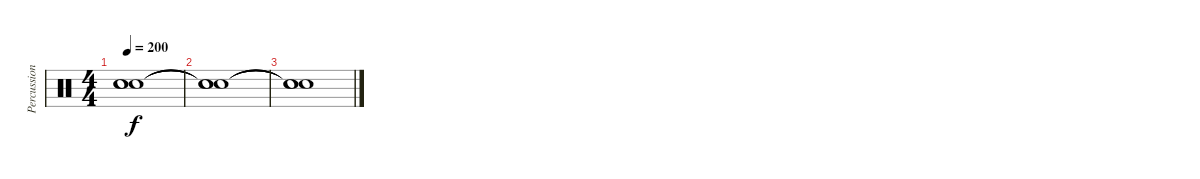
\track ("Percussion" "Percussion") {instrument percussion}
\staff {score}
\articulation defaults
\ts (4 4)
\tempo 200
\clef neutral
\ks c
("Snare (hit)"{t} "Snare (hit)"{t} "Snare (hit)"{t}).1{dy f} |
("Snare (hit)"{t} "Snare (hit)"{t} "Snare (hit)"{t}).1 |
("Snare (hit)"{t} "Snare (hit)"{t} "Snare (hit)"{t}).1
